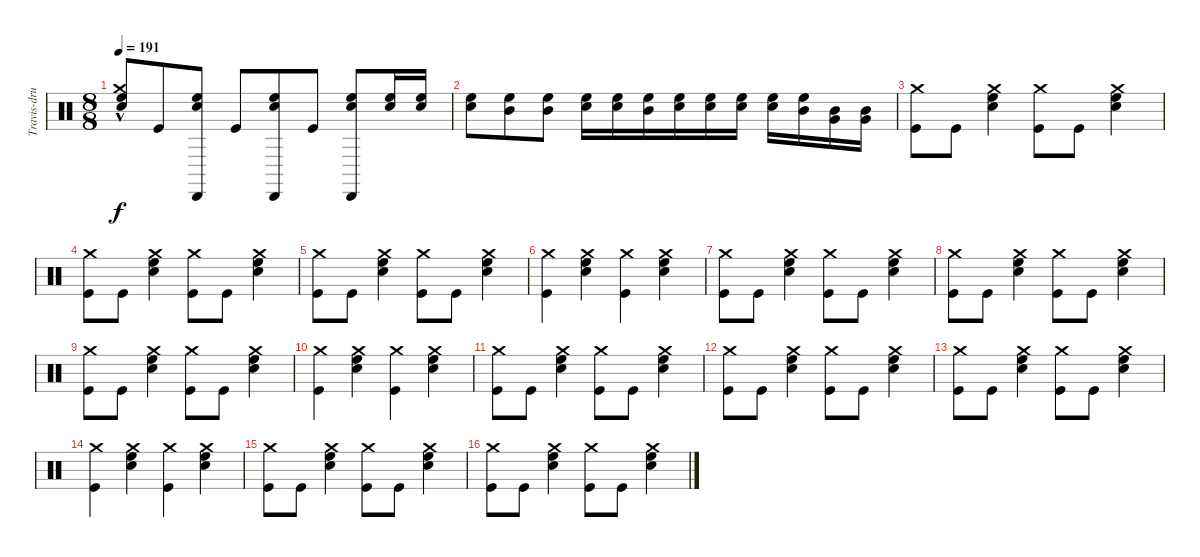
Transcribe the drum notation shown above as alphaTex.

\track ("Travis-drums" "Travis-dru") {instrument percussion}
\staff {score}
\articulation defaults
\ts (8 8)
\tempo 191
\clef neutral
\ks c
("High Floor Tom (hit)" "Crash medium (hit)"{hac} "Electric Snare (hit)").8{dy f} "Kick (hit)".8 ("High Floor Tom (hit)" "Cabasa (hit)" "Electric Snare (hit)").8 "Kick (hit)".8 ("High Floor Tom (hit)" "Cabasa (hit)" "Electric Snare (hit)").8 "Kick (hit)".8 ("High Floor Tom (hit)" "Cabasa (hit)" "Electric Snare (hit)").8 ("High Floor Tom (hit)" "Electric Snare (hit)").16 ("High Floor Tom (hit)" "Electric Snare (hit)").16 |
("High Floor Tom (hit)" "Electric Snare (hit)").8 ("Mid Tom (hit)" "High Floor Tom (hit)").8 ("Mid Tom (hit)" "High Floor Tom (hit)").8 ("High Floor Tom (hit)" "Electric Snare (hit)").16 ("High Floor Tom (hit)" "Electric Snare (hit)").16 ("Mid Tom (hit)" "High Floor Tom (hit)").16 ("Electric Snare (hit)" "High Floor Tom (hit)").16 ("High Floor Tom (hit)" "Electric Snare (hit)").16 ("High Floor Tom (hit)" "Electric Snare (hit)").16 ("Electric Snare (hit)" "High Floor Tom (hit)").16 ("Mid Tom (hit)" "High Floor Tom (hit)").16 ("Very Low Tom (hit)" "Mid Tom (hit)").16 ("Very Low Tom (hit)" "Mid Tom (hit)").16 |
("Crash medium (hit)" "Kick (hit)").8 "Kick (hit)".8 ("Crash medium (hit)" "High Floor Tom (hit)" "Electric Snare (hit)").4 ("Crash medium (hit)" "Kick (hit)").8 "Kick (hit)".8 ("Crash medium (hit)" "High Floor Tom (hit)" "Electric Snare (hit)").4 |
("Crash medium (hit)" "Kick (hit)").8 "Kick (hit)".8 ("Crash medium (hit)" "High Floor Tom (hit)" "Electric Snare (hit)").4 ("Crash medium (hit)" "Kick (hit)").8 "Kick (hit)".8 ("Crash medium (hit)" "High Floor Tom (hit)" "Electric Snare (hit)").4 |
("Crash medium (hit)" "Kick (hit)").8 "Kick (hit)".8 ("Crash medium (hit)" "High Floor Tom (hit)" "Electric Snare (hit)").4 ("Crash medium (hit)" "Kick (hit)").8 "Kick (hit)".8 ("Crash medium (hit)" "High Floor Tom (hit)" "Electric Snare (hit)").4 |
("Crash medium (hit)" "Kick (hit)").4 ("Crash medium (hit)" "High Floor Tom (hit)" "Electric Snare (hit)").4 ("Crash medium (hit)" "Kick (hit)").4 ("Crash medium (hit)" "High Floor Tom (hit)" "Electric Snare (hit)").4 |
("Crash medium (hit)" "Kick (hit)").8 "Kick (hit)".8 ("Crash medium (hit)" "High Floor Tom (hit)" "Electric Snare (hit)").4 ("Crash medium (hit)" "Kick (hit)").8 "Kick (hit)".8 ("Crash medium (hit)" "High Floor Tom (hit)" "Electric Snare (hit)").4 |
("Crash medium (hit)" "Kick (hit)").8 "Kick (hit)".8 ("Crash medium (hit)" "High Floor Tom (hit)" "Electric Snare (hit)").4 ("Crash medium (hit)" "Kick (hit)").8 "Kick (hit)".8 ("Crash medium (hit)" "High Floor Tom (hit)" "Electric Snare (hit)").4 |
("Crash medium (hit)" "Kick (hit)").8 "Kick (hit)".8 ("Crash medium (hit)" "High Floor Tom (hit)" "Electric Snare (hit)").4 ("Crash medium (hit)" "Kick (hit)").8 "Kick (hit)".8 ("Crash medium (hit)" "High Floor Tom (hit)" "Electric Snare (hit)").4 |
("Crash medium (hit)" "Kick (hit)").4 ("Crash medium (hit)" "High Floor Tom (hit)" "Electric Snare (hit)").4 ("Crash medium (hit)" "Kick (hit)").4 ("Crash medium (hit)" "High Floor Tom (hit)" "Electric Snare (hit)").4 |
("Crash medium (hit)" "Kick (hit)").8 "Kick (hit)".8 ("Crash medium (hit)" "High Floor Tom (hit)" "Electric Snare (hit)").4 ("Crash medium (hit)" "Kick (hit)").8 "Kick (hit)".8 ("Crash medium (hit)" "High Floor Tom (hit)" "Electric Snare (hit)").4 |
("Crash medium (hit)" "Kick (hit)").8 "Kick (hit)".8 ("Crash medium (hit)" "High Floor Tom (hit)" "Electric Snare (hit)").4 ("Crash medium (hit)" "Kick (hit)").8 "Kick (hit)".8 ("Crash medium (hit)" "High Floor Tom (hit)" "Electric Snare (hit)").4 |
("Crash medium (hit)" "Kick (hit)").8 "Kick (hit)".8 ("Crash medium (hit)" "High Floor Tom (hit)" "Electric Snare (hit)").4 ("Crash medium (hit)" "Kick (hit)").8 "Kick (hit)".8 ("Crash medium (hit)" "High Floor Tom (hit)" "Electric Snare (hit)").4 |
("Crash medium (hit)" "Kick (hit)").4 ("Crash medium (hit)" "High Floor Tom (hit)" "Electric Snare (hit)").4 ("Crash medium (hit)" "Kick (hit)").4 ("Crash medium (hit)" "High Floor Tom (hit)" "Electric Snare (hit)").4 |
("Crash medium (hit)" "Kick (hit)").8 "Kick (hit)".8 ("Crash medium (hit)" "High Floor Tom (hit)" "Electric Snare (hit)").4 ("Crash medium (hit)" "Kick (hit)").8 "Kick (hit)".8 ("Crash medium (hit)" "High Floor Tom (hit)" "Electric Snare (hit)").4 |
("Crash medium (hit)" "Kick (hit)").8 "Kick (hit)".8 ("Crash medium (hit)" "High Floor Tom (hit)" "Electric Snare (hit)").4 ("Crash medium (hit)" "Kick (hit)").8 "Kick (hit)".8 ("Crash medium (hit)" "High Floor Tom (hit)" "Electric Snare (hit)").4
